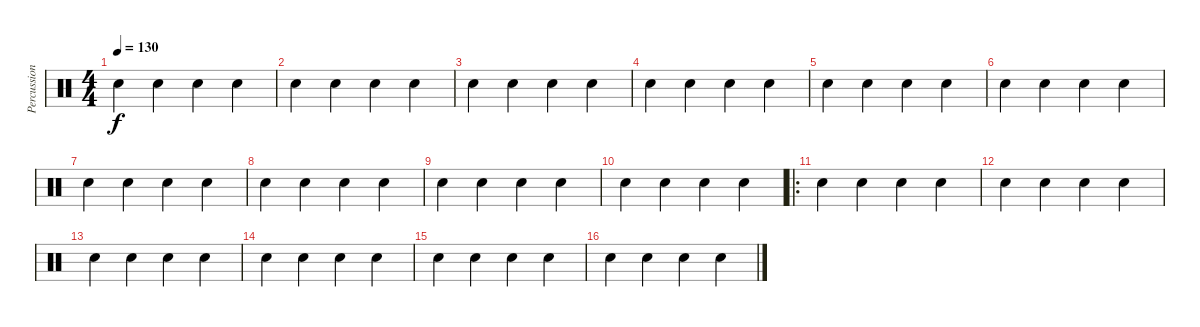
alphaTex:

\track ("Percussions" "Percussion") {instrument percussion}
\staff {score}
\articulation defaults
\ts (4 4)
\tempo 130
\clef neutral
\ks c "Hand Clap (hit)".4{dy f} "Hand Clap (hit)".4 "Hand Clap (hit)".4 "Hand Clap (hit)".4
|
"Hand Clap (hit)".4 "Hand Clap (hit)".4 "Hand Clap (hit)".4 "Hand Clap (hit)".4 |
"Hand Clap (hit)".4 "Hand Clap (hit)".4 "Hand Clap (hit)".4 "Hand Clap (hit)".4 |
"Hand Clap (hit)".4 "Hand Clap (hit)".4 "Hand Clap (hit)".4 "Hand Clap (hit)".4 |
"Hand Clap (hit)".4 "Hand Clap (hit)".4 "Hand Clap (hit)".4 "Hand Clap (hit)".4 |
"Hand Clap (hit)".4 "Hand Clap (hit)".4 "Hand Clap (hit)".4 "Hand Clap (hit)".4 |
"Hand Clap (hit)".4 "Hand Clap (hit)".4 "Hand Clap (hit)".4 "Hand Clap (hit)".4 |
"Hand Clap (hit)".4 "Hand Clap (hit)".4 "Hand Clap (hit)".4 "Hand Clap (hit)".4 |
"Hand Clap (hit)".4 "Hand Clap (hit)".4 "Hand Clap (hit)".4 "Hand Clap (hit)".4 |
"Hand Clap (hit)".4 "Hand Clap (hit)".4 "Hand Clap (hit)".4 "Hand Clap (hit)".4 |
\ro "Hand Clap (hit)".4 "Hand Clap (hit)".4 "Hand Clap (hit)".4 "Hand Clap (hit)".4
|
"Hand Clap (hit)".4 "Hand Clap (hit)".4 "Hand Clap (hit)".4 "Hand Clap (hit)".4 |
"Hand Clap (hit)".4 "Hand Clap (hit)".4 "Hand Clap (hit)".4 "Hand Clap (hit)".4 |
"Hand Clap (hit)".4 "Hand Clap (hit)".4 "Hand Clap (hit)".4 "Hand Clap (hit)".4 |
"Hand Clap (hit)".4 "Hand Clap (hit)".4 "Hand Clap (hit)".4 "Hand Clap (hit)".4 |
"Hand Clap (hit)".4 "Hand Clap (hit)".4 "Hand Clap (hit)".4 "Hand Clap (hit)".4
